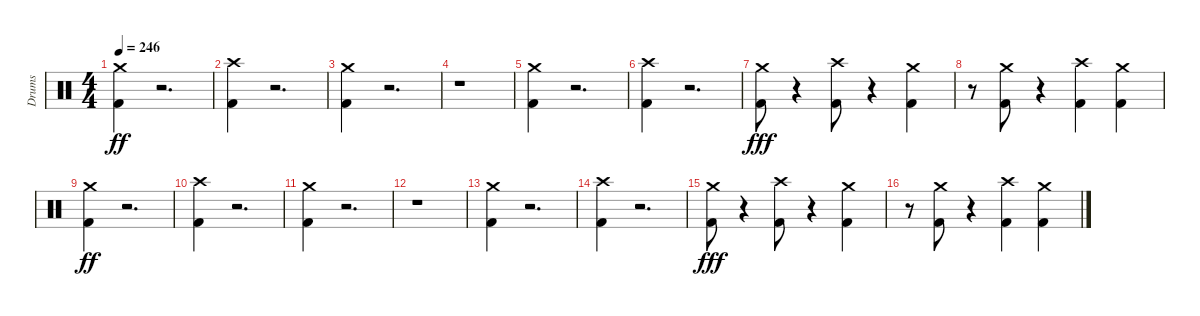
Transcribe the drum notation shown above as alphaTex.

\track ("Drums" "Drums") {instrument percussion}
\staff {score}
\articulation defaults
\ts (4 4)
\tempo 246
\clef neutral
\ks c
("Kick (hit) 2" "Crash medium (hit)").4{dy ff} r.2{d} |
("Kick (hit) 2" "Crash high (hit)").4{volume 12} r.2{d} |
("Kick (hit) 2" "Crash medium (hit)").4{volume 12} r.2{d} |
r.1 |
("Kick (hit) 2" "Crash medium (hit)").4{volume 12} r.2{d} |
("Kick (hit) 2" "Crash high (hit)").4{volume 12} r.2{d} |
("Kick (hit) 2" "Crash medium (hit)").8{dy fff volume 12} r.4 ("Kick (hit) 2" "Crash high (hit)").8 r.4 ("Kick (hit) 2" "Crash medium (hit)").4 |
r.8 ("Kick (hit) 2" "Crash medium (hit)").8{volume 12} r.4 ("Kick (hit) 2" "Crash high (hit)").4 ("Kick (hit) 2" "Crash medium (hit)").4 |
("Kick (hit) 2" "Crash medium (hit)").4{dy ff volume 12} r.2{d} |
("Kick (hit) 2" "Crash high (hit)").4{volume 12} r.2{d} |
("Kick (hit) 2" "Crash medium (hit)").4{volume 12} r.2{d} |
r.1 |
("Kick (hit) 2" "Crash medium (hit)").4{volume 12} r.2{d} |
("Kick (hit) 2" "Crash high (hit)").4{volume 12} r.2{d} |
("Kick (hit) 2" "Crash medium (hit)").8{dy fff volume 12} r.4 ("Kick (hit) 2" "Crash high (hit)").8 r.4 ("Kick (hit) 2" "Crash medium (hit)").4 |
r.8 ("Kick (hit) 2" "Crash medium (hit)").8{volume 12} r.4 ("Kick (hit) 2" "Crash high (hit)").4 ("Kick (hit) 2" "Crash medium (hit)").4
